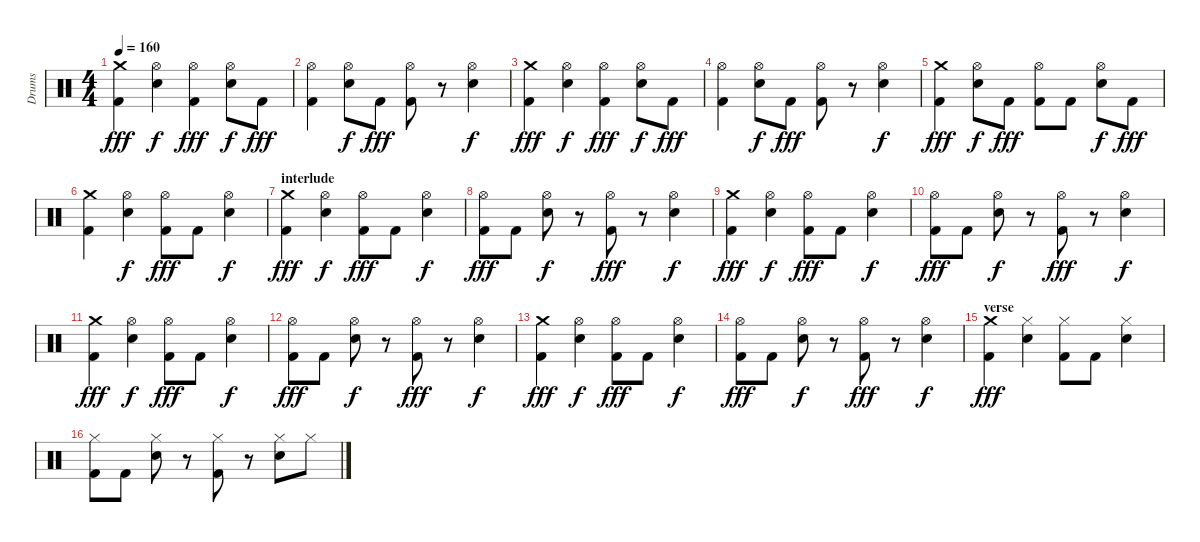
\track ("Drums" "Drums") {instrument percussion}
\staff {score}
\articulation defaults
\ts (4 4)
\tempo 160
\clef neutral
\ks c
("Crash medium (hit)" "Kick (hit) 2").4{dy fff} ("Hi-Hat (open)" "Electric Snare (hit)").4{dy f} ("Hi-Hat (open)" "Kick (hit) 2").4{dy fff} ("Hi-Hat (open)" "Electric Snare (hit)").8{dy f} "Kick (hit) 2".8{dy fff} |
("Hi-Hat (open)" "Kick (hit) 2").4 ("Hi-Hat (open)" "Electric Snare (hit)").8{dy f} "Kick (hit) 2".8{dy fff} ("Hi-Hat (open)" "Kick (hit) 2").8 r.8 ("Hi-Hat (open)" "Electric Snare (hit)").4{dy f} |
("Crash medium (hit)" "Kick (hit) 2").4{dy fff} ("Hi-Hat (open)" "Electric Snare (hit)").4{dy f} ("Hi-Hat (open)" "Kick (hit) 2").4{dy fff} ("Hi-Hat (open)" "Electric Snare (hit)").8{dy f} "Kick (hit) 2".8{dy fff} |
("Hi-Hat (open)" "Kick (hit) 2").4 ("Hi-Hat (open)" "Electric Snare (hit)").8{dy f} "Kick (hit) 2".8{dy fff} ("Hi-Hat (open)" "Kick (hit) 2").8 r.8 ("Hi-Hat (open)" "Electric Snare (hit)").4{dy f} |
("Crash medium (hit)" "Kick (hit) 2").4{dy fff} ("Hi-Hat (open)" "Electric Snare (hit)").8{dy f} "Kick (hit) 2".8{dy fff} ("Hi-Hat (open)" "Kick (hit) 2").8 "Kick (hit) 2".8 ("Hi-Hat (open)" "Electric Snare (hit)").8{dy f} "Kick (hit) 2".8{dy fff} |
("Crash medium (hit)" "Kick (hit) 2").4 ("Hi-Hat (open)" "Electric Snare (hit)").4{dy f} ("Hi-Hat (open)" "Kick (hit) 2").8{dy fff} "Kick (hit) 2".8 ("Hi-Hat (open)" "Electric Snare (hit)").4{dy f} |
\section ("" "interlude")
("Crash medium (hit)" "Kick (hit) 2").4{dy fff} ("Hi-Hat (open)" "Electric Snare (hit)").4{dy f} ("Hi-Hat (open)" "Kick (hit) 2").8{dy fff} "Kick (hit) 2".8 ("Hi-Hat (open)" "Electric Snare (hit)").4{dy f} |
("Hi-Hat (open)" "Kick (hit) 2").8{dy fff} "Kick (hit) 2".8 ("Hi-Hat (open)" "Electric Snare (hit)").8{dy f} r.8 ("Hi-Hat (open)" "Kick (hit) 2").8{dy fff} r.8 ("Hi-Hat (open)" "Electric Snare (hit)").4{dy f} |
("Crash medium (hit)" "Kick (hit) 2").4{dy fff} ("Hi-Hat (open)" "Electric Snare (hit)").4{dy f} ("Hi-Hat (open)" "Kick (hit) 2").8{dy fff} "Kick (hit) 2".8 ("Hi-Hat (open)" "Electric Snare (hit)").4{dy f} |
("Hi-Hat (open)" "Kick (hit) 2").8{dy fff} "Kick (hit) 2".8 ("Hi-Hat (open)" "Electric Snare (hit)").8{dy f} r.8 ("Hi-Hat (open)" "Kick (hit) 2").8{dy fff} r.8 ("Hi-Hat (open)" "Electric Snare (hit)").4{dy f} |
("Crash medium (hit)" "Kick (hit) 2").4{dy fff} ("Hi-Hat (open)" "Electric Snare (hit)").4{dy f} ("Hi-Hat (open)" "Kick (hit) 2").8{dy fff} "Kick (hit) 2".8 ("Hi-Hat (open)" "Electric Snare (hit)").4{dy f} |
("Hi-Hat (open)" "Kick (hit) 2").8{dy fff} "Kick (hit) 2".8 ("Hi-Hat (open)" "Electric Snare (hit)").8{dy f} r.8 ("Hi-Hat (open)" "Kick (hit) 2").8{dy fff} r.8 ("Hi-Hat (open)" "Electric Snare (hit)").4{dy f} |
("Crash medium (hit)" "Kick (hit) 2").4{dy fff} ("Hi-Hat (open)" "Electric Snare (hit)").4{dy f} ("Hi-Hat (open)" "Kick (hit) 2").8{dy fff} "Kick (hit) 2".8 ("Hi-Hat (open)" "Electric Snare (hit)").4{dy f} |
("Hi-Hat (open)" "Kick (hit) 2").8{dy fff} "Kick (hit) 2".8 ("Hi-Hat (open)" "Electric Snare (hit)").8{dy f} r.8 ("Hi-Hat (open)" "Kick (hit) 2").8{dy fff} r.8 ("Hi-Hat (open)" "Electric Snare (hit)").4{dy f} |
\section ("" "verse")
("Crash medium (hit)" "Kick (hit) 2").4{dy fff} ("Hi-Hat (closed)" "Electric Snare (hit)").4 ("Hi-Hat (closed)" "Kick (hit) 2").8 "Kick (hit) 2".8 ("Hi-Hat (closed)" "Electric Snare (hit)").4 |
("Hi-Hat (closed)" "Kick (hit) 2").8 "Kick (hit) 2".8 ("Hi-Hat (closed)" "Electric Snare (hit)").8 r.8 ("Hi-Hat (closed)" "Kick (hit) 2").8 r.8 ("Hi-Hat (closed)" "Electric Snare (hit)").8 "Hi-Hat (closed)".8
